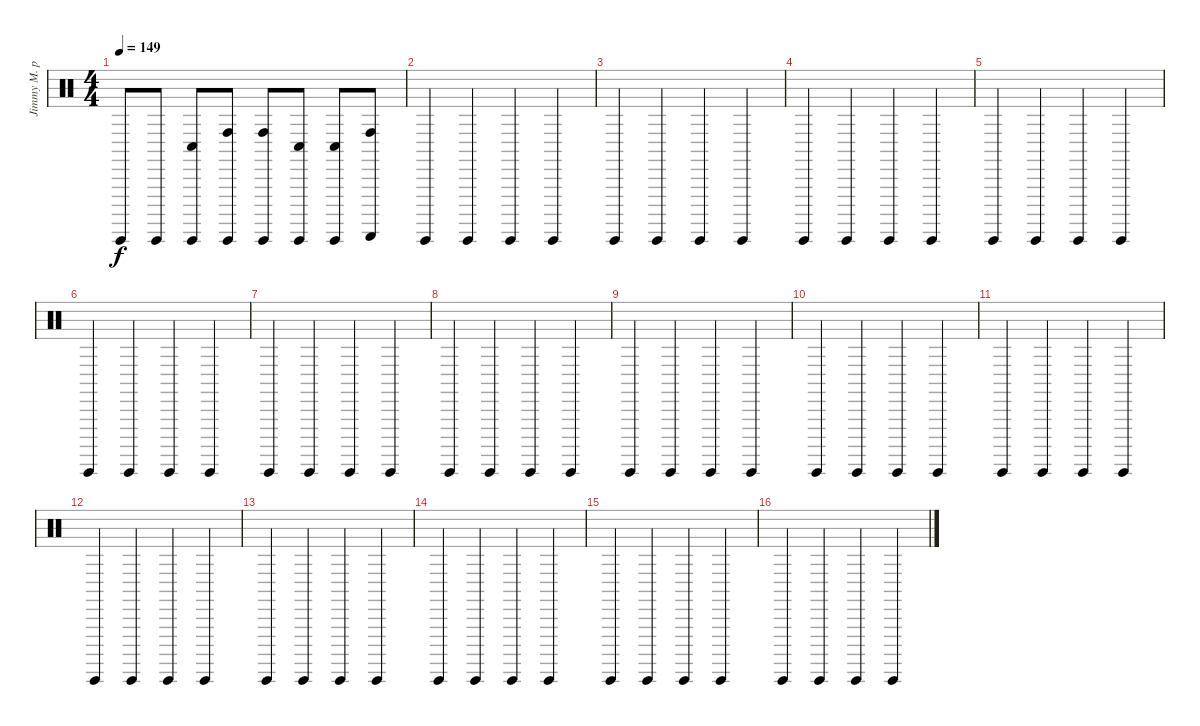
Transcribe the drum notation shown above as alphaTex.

\track ("Jimmy M. percussion" "Jimmy M. p") {instrument percussion}
\staff {score}
\articulation defaults
\ts (4 4)
\tempo 149
\clef neutral
\ks c "Guiro (hit)".8{dy f} "Guiro (hit)".8
("Guiro (hit)" "Conga low (hit)").8 ("Guiro (hit)" "Conga high (hit)").8 ("Guiro (hit)" "Conga high (hit)").8 ("Guiro (hit)" "Conga low (hit)").8 ("Guiro (hit)" "Conga low (hit)").8 ("Guiro (scrap-return)" "Conga high (hit)").8 |
"Guiro (hit)".4 "Guiro (hit)".4 "Guiro (hit)".4 "Guiro (hit)".4 |
"Guiro (hit)".4 "Guiro (hit)".4 "Guiro (hit)".4 "Guiro (hit)".4 |
"Guiro (hit)".4 "Guiro (hit)".4 "Guiro (hit)".4 "Guiro (hit)".4 |
"Guiro (hit)".4 "Guiro (hit)".4 "Guiro (hit)".4 "Guiro (hit)".4 |
"Guiro (hit)".4 "Guiro (hit)".4 "Guiro (hit)".4 "Guiro (hit)".4 |
"Guiro (hit)".4 "Guiro (hit)".4 "Guiro (hit)".4 "Guiro (hit)".4 |
"Guiro (hit)".4 "Guiro (hit)".4 "Guiro (hit)".4 "Guiro (hit)".4 |
"Guiro (hit)".4 "Guiro (hit)".4 "Guiro (hit)".4 "Guiro (hit)".4 |
"Guiro (hit)".4 "Guiro (hit)".4 "Guiro (hit)".4 "Guiro (hit)".4 |
"Guiro (hit)".4 "Guiro (hit)".4 "Guiro (hit)".4 "Guiro (hit)".4 |
"Guiro (hit)".4 "Guiro (hit)".4 "Guiro (hit)".4 "Guiro (hit)".4 |
"Guiro (hit)".4 "Guiro (hit)".4 "Guiro (hit)".4 "Guiro (hit)".4 |
"Guiro (hit)".4 "Guiro (hit)".4 "Guiro (hit)".4 "Guiro (hit)".4 |
"Guiro (hit)".4 "Guiro (hit)".4 "Guiro (hit)".4 "Guiro (hit)".4 |
"Guiro (hit)".4 "Guiro (hit)".4 "Guiro (hit)".4 "Guiro (hit)".4
